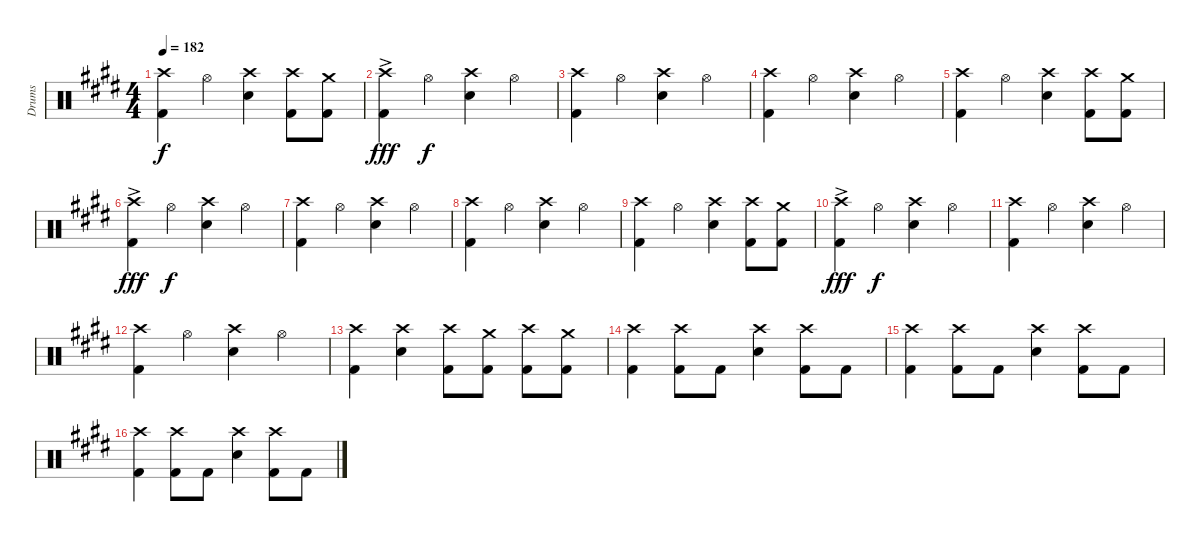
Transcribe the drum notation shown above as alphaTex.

\track ("Drums" "Drums") {instrument percussion}
\staff {score}
\articulation defaults
\ts (4 4)
\tempo 182
\clef neutral
\ks c#minor
("Crash high (hit)" "Kick (hit) 2").4{dy f} "Hi-Hat (open)".4 ("Crash high (hit)" "Snare (hit) 2").4 ("Crash high (hit)" "Kick (hit) 2").8 ("Crash medium (hit)" "Kick (hit) 2").8 |
("Crash high (hit)" "Kick (hit) 2"{ac}).4{dy fff} "Hi-Hat (open)".4{dy f} ("Crash high (hit)" "Snare (hit) 2").4 "Hi-Hat (open)".4 |
("Crash high (hit)" "Kick (hit) 2").4 "Hi-Hat (open)".4 ("Crash high (hit)" "Snare (hit) 2").4 "Hi-Hat (open)".4 |
("Crash high (hit)" "Kick (hit) 2").4 "Hi-Hat (open)".4 ("Crash high (hit)" "Snare (hit) 2").4 "Hi-Hat (open)".4 |
("Crash high (hit)" "Kick (hit) 2").4 "Hi-Hat (open)".4 ("Crash high (hit)" "Snare (hit) 2").4 ("Crash high (hit)" "Kick (hit) 2").8 ("Crash medium (hit)" "Kick (hit) 2").8 |
("Crash high (hit)" "Kick (hit) 2"{ac}).4{dy fff} "Hi-Hat (open)".4{dy f} ("Crash high (hit)" "Snare (hit) 2").4 "Hi-Hat (open)".4 |
("Crash high (hit)" "Kick (hit) 2").4 "Hi-Hat (open)".4 ("Crash high (hit)" "Snare (hit) 2").4 "Hi-Hat (open)".4 |
("Crash high (hit)" "Kick (hit) 2").4 "Hi-Hat (open)".4 ("Crash high (hit)" "Snare (hit) 2").4 "Hi-Hat (open)".4 |
("Crash high (hit)" "Kick (hit) 2").4 "Hi-Hat (open)".4 ("Crash high (hit)" "Snare (hit) 2").4 ("Crash high (hit)" "Kick (hit) 2").8 ("Crash medium (hit)" "Kick (hit) 2").8 |
("Crash high (hit)" "Kick (hit) 2"{ac}).4{dy fff} "Hi-Hat (open)".4{dy f} ("Crash high (hit)" "Snare (hit) 2").4 "Hi-Hat (open)".4 |
("Crash high (hit)" "Kick (hit) 2").4 "Hi-Hat (open)".4 ("Crash high (hit)" "Snare (hit) 2").4 "Hi-Hat (open)".4 |
("Crash high (hit)" "Kick (hit) 2").4 "Hi-Hat (open)".4 ("Crash high (hit)" "Snare (hit) 2").4 "Hi-Hat (open)".4 |
("Crash high (hit)" "Kick (hit) 2").4 ("Crash high (hit)" "Snare (hit) 2").4 ("Crash high (hit)" "Kick (hit) 2").8 ("Crash medium (hit)" "Kick (hit) 2").8 ("Crash high (hit)" "Kick (hit) 2").8 ("Crash medium (hit)" "Kick (hit) 2").8 |
("Crash high (hit)" "Kick (hit) 2").4 ("Crash high (hit)" "Kick (hit) 2").8 "Kick (hit) 2".8 ("Crash high (hit)" "Snare (hit) 2").4 ("Crash high (hit)" "Kick (hit) 2").8 "Kick (hit) 2".8 |
("Crash high (hit)" "Kick (hit) 2").4 ("Crash high (hit)" "Kick (hit) 2").8 "Kick (hit) 2".8 ("Crash high (hit)" "Snare (hit) 2").4 ("Crash high (hit)" "Kick (hit) 2").8 "Kick (hit) 2".8 |
("Crash high (hit)" "Kick (hit) 2").4 ("Crash high (hit)" "Kick (hit) 2").8 "Kick (hit) 2".8 ("Crash high (hit)" "Snare (hit) 2").4 ("Crash high (hit)" "Kick (hit) 2").8 "Kick (hit) 2".8
